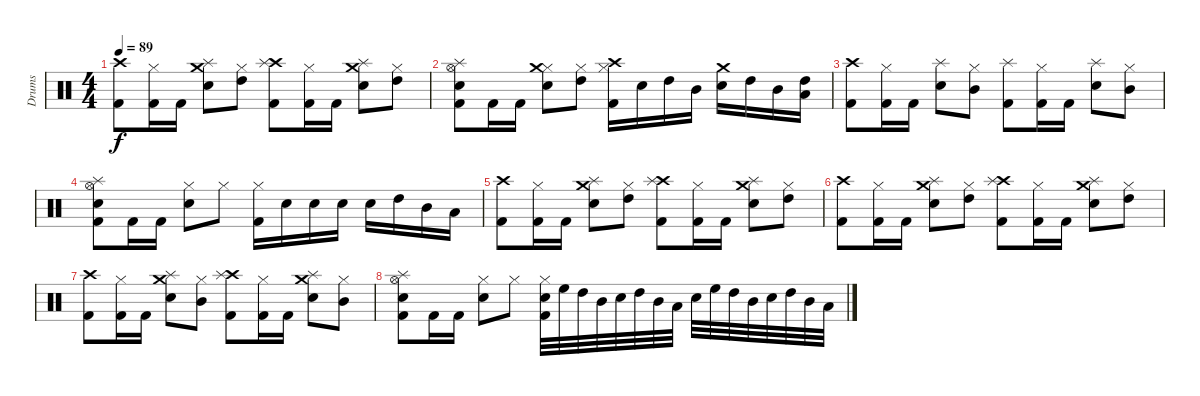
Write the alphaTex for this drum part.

\track ("Drums" "Drums") {instrument percussion}
\staff {score}
\articulation defaults
\ts (4 4)
\tempo 89
\clef neutral
\ks c
("Kick (hit) 2" "Crash high (hit)").8{dy f} ("Kick (hit) 2" "Hi-Hat (closed)").16 "Kick (hit) 2".16 ("Snare (hit) 2" "Crash medium (hit)" "Splash (hit)").8 ("Hi-Hat (closed)" "High Tom (hit)").8 ("Kick (hit) 2" "Crash high (hit)" "Splash (hit)").8 ("Kick (hit) 2" "Hi-Hat (closed)").16 "Kick (hit) 2".16 ("Snare (hit) 2" "Crash medium (hit)" "Splash (hit)").8 ("Hi-Hat (closed)" "High Tom (hit)").8 |
("Kick (hit) 2" "Snare (hit) 2" "Hi-Hat (open)" "Splash (hit)").8 "Kick (hit) 2".16 "Kick (hit) 2".16 ("Snare (hit) 2" "Hi-Hat (closed)" "Crash medium (hit)").8 ("Hi-Hat (closed)" "High Tom (hit)").8 ("Kick (hit) 2" "Hi-Hat (closed)" "Crash high (hit)").16 "Snare (hit) 2".16 "High Tom (hit)".16 "Mid Tom (hit)".16 ("Snare (hit) 2" "Crash medium (hit)").16 "High Tom (hit)".16 "Mid Tom (hit)".16 ("Low Tom (hit)" "High Tom (hit)").16 |
("Kick (hit) 2" "Crash high (hit)").8{volume 10} ("Kick (hit) 2" "Hi-Hat (closed)").16 "Kick (hit) 2".16 ("Snare (hit) 2" "Splash (hit)").8 ("Hi-Hat (closed)" "Mid Tom (hit)").8 ("Kick (hit) 2" "Splash (hit)").8 ("Kick (hit) 2" "Hi-Hat (closed)").16 "Kick (hit) 2".16 ("Snare (hit) 2" "Splash (hit)").8 ("Hi-Hat (closed)" "Mid Tom (hit)").8 |
("Kick (hit) 2" "Snare (hit) 2" "Hi-Hat (open)" "Splash (hit)").8 "Kick (hit) 2".16 "Kick (hit) 2".16 ("Snare (hit) 2" "Hi-Hat (closed)").8 "Hi-Hat (closed)".8 ("Kick (hit) 2" "Hi-Hat (closed)").16 "Snare (hit) 2".16 "Snare (hit) 2".16 "Snare (hit) 2".16 "Snare (hit) 2".16 "High Tom (hit)".16 "Mid Tom (hit)".16 "Low Tom (hit)".16 |
("Kick (hit) 2" "Crash high (hit)").8{volume 5} ("Kick (hit) 2" "Hi-Hat (closed)").16 "Kick (hit) 2".16 ("Snare (hit) 2" "Crash medium (hit)" "Splash (hit)").8 ("Hi-Hat (closed)" "High Tom (hit)").8 ("Kick (hit) 2" "Crash high (hit)" "Splash (hit)").8 ("Kick (hit) 2" "Hi-Hat (closed)").16 "Kick (hit) 2".16 ("Snare (hit) 2" "Crash medium (hit)" "Splash (hit)").8 ("Hi-Hat (closed)" "High Tom (hit)").8 |
("Kick (hit) 2" "Crash high (hit)").8 ("Kick (hit) 2" "Hi-Hat (closed)").16 "Kick (hit) 2".16 ("Snare (hit) 2" "Crash medium (hit)" "Splash (hit)").8 ("Hi-Hat (closed)" "High Tom (hit)").8 ("Kick (hit) 2" "Crash high (hit)" "Splash (hit)").8 ("Kick (hit) 2" "Hi-Hat (closed)").16 "Kick (hit) 2".16 ("Snare (hit) 2" "Crash medium (hit)" "Splash (hit)").8 ("Hi-Hat (closed)" "High Tom (hit)").8 |
("Kick (hit) 2" "Crash high (hit)").8{volume 0} ("Kick (hit) 2" "Hi-Hat (closed)").16 "Kick (hit) 2".16 ("Snare (hit) 2" "Crash medium (hit)" "Splash (hit)").8 ("Hi-Hat (closed)" "Mid Tom (hit)").8 ("Kick (hit) 2" "Crash high (hit)" "Splash (hit)").8 ("Kick (hit) 2" "Hi-Hat (closed)").16 "Kick (hit) 2".16 ("Snare (hit) 2" "Crash medium (hit)" "Splash (hit)").8 ("Hi-Hat (closed)" "Mid Tom (hit)").8 |
("Kick (hit) 2" "Snare (hit) 2" "Hi-Hat (open)" "Splash (hit)").8 "Kick (hit) 2".16 "Kick (hit) 2".16 ("Snare (hit) 2" "Hi-Hat (closed)").8 "Hi-Hat (closed)".8 ("Kick (hit) 2" "Snare (hit) 2" "Hi-Hat (closed)").32 "High Floor Tom (hit)".32 "High Tom (hit)".32 "Mid Tom (hit)".32 "Snare (hit) 2".32 "High Tom (hit)".32 "Mid Tom (hit)".32 "Low Tom (hit)".32 "Snare (hit) 2".32 "High Floor Tom (hit)".32 "High Tom (hit)".32 "Mid Tom (hit)".32 "Snare (hit) 2".32 "High Tom (hit)".32 "Mid Tom (hit)".32 "Low Tom (hit)".32
